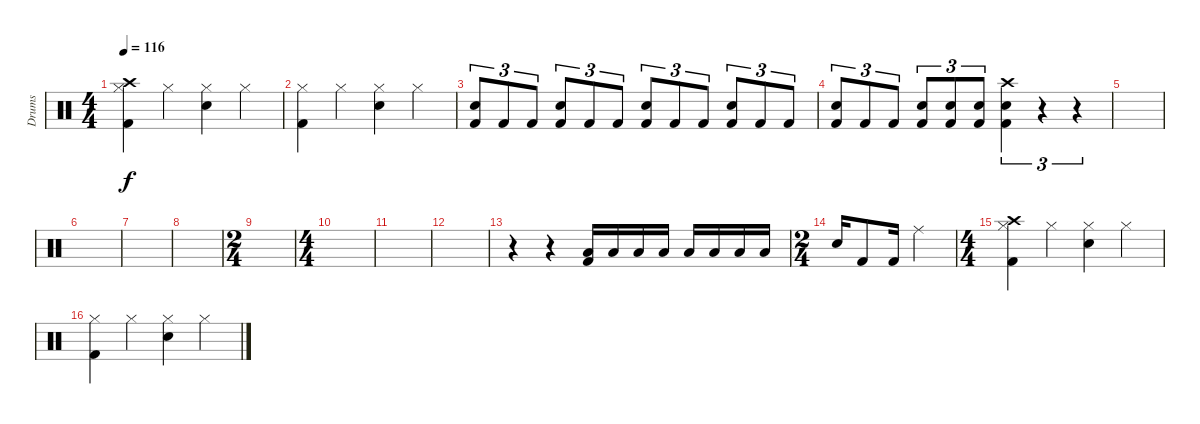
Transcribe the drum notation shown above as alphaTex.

\track ("Drums" "Drums") {instrument percussion}
\staff {score}
\articulation defaults
\ts (4 4)
\tempo 116
\clef neutral
\ks c
("Crash high (hit)" "Hi-Hat (closed)" "Kick (hit) 2").4{dy f} "Hi-Hat (closed)".4 ("Hi-Hat (closed)" "Snare (hit) 2").4 "Hi-Hat (closed)".4 |
("Hi-Hat (closed)" "Kick (hit) 2").4 "Hi-Hat (closed)".4 ("Hi-Hat (closed)" "Snare (hit) 2").4 "Hi-Hat (closed)".4 |
("Electric Snare (hit)" "Kick (hit) 2").8{tu (3 2)} "Kick (hit) 2".8{tu (3 2)} "Kick (hit) 2".8{tu (3 2)} ("Electric Snare (hit)" "Kick (hit) 2").8{tu (3 2)} "Kick (hit) 2".8{tu (3 2)} "Kick (hit) 2".8{tu (3 2)} ("Electric Snare (hit)" "Kick (hit) 2").8{tu (3 2)} "Kick (hit) 2".8{tu (3 2)} "Kick (hit) 2".8{tu (3 2)} ("Electric Snare (hit)" "Kick (hit) 2").8{tu (3 2)} "Kick (hit) 2".8{tu (3 2)} "Kick (hit) 2".8{tu (3 2)} |
("Electric Snare (hit)" "Kick (hit) 2").8{tu (3 2)} "Kick (hit) 2".8{tu (3 2)} "Kick (hit) 2".8{tu (3 2)} ("Electric Snare (hit)" "Kick (hit) 2").8{tu (3 2)} ("Electric Snare (hit)" "Kick (hit) 2").8{tu (3 2)} ("Electric Snare (hit)" "Kick (hit) 2").8{tu (3 2)} ("Crash high (hit)" "Electric Snare (hit)" "Kick (hit) 2").4{tu (3 2)} r.4{tu (3 2)} r.4{tu (3 2)} |
|
|
|
|
\ts (2 4)
|
\ts (4 4)
|
|
|
r.4 r.4 ("Low Tom (hit)" "Kick (hit) 2").16 "Low Tom (hit)".16 "Low Tom (hit)".16 "Low Tom (hit)".16 "Low Tom (hit)".16 "Low Tom (hit)".16 "Low Tom (hit)".16 "Low Tom (hit)".16 |
\ts (2 4)
"Electric Snare (hit)".16 "Kick (hit) 2".8 "Kick (hit) 2".16 "Ride (middle)".4 |
\ts (4 4)
("Crash high (hit)" "Hi-Hat (closed)" "Kick (hit) 2").4 "Hi-Hat (closed)".4 ("Hi-Hat (closed)" "Snare (hit) 2").4 "Hi-Hat (closed)".4 |
("Hi-Hat (closed)" "Kick (hit) 2").4 "Hi-Hat (closed)".4 ("Hi-Hat (closed)" "Snare (hit) 2").4 "Hi-Hat (closed)".4
